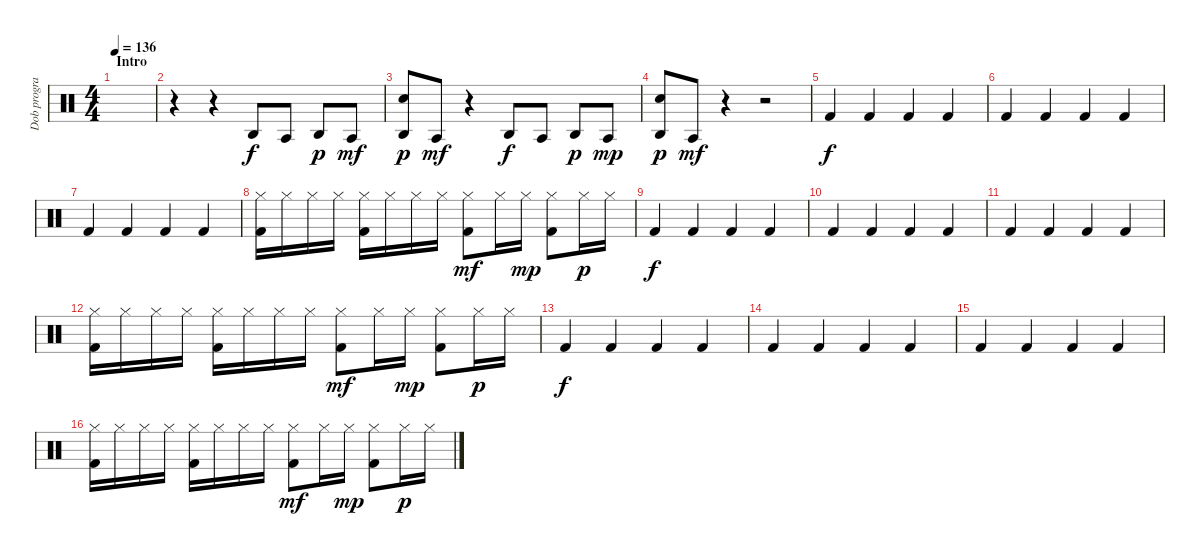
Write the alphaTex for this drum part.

\track ("Dob program" "Dob progra") {instrument percussion}
\staff {score}
\articulation defaults
\ts (4 4)
\section ("" "Intro")
\tempo 136
\clef neutral
\ks c
|
r.4 r.4 "Agogo high (hit)".8 "Agogo tow (hit)".8 "Agogo high (hit)".8{dy p} "Agogo tow (hit)".8{dy mf} |
("Agogo high (hit)" "Electric Snare (hit)").8{dy p} "Agogo tow (hit)".8{dy mf} r.4 "Agogo high (hit)".8{dy f} "Agogo tow (hit)".8 "Agogo high (hit)".8{dy p} "Agogo tow (hit)".8{dy mp} |
("Agogo high (hit)" "Electric Snare (hit)").8{dy p} "Agogo tow (hit)".8{dy mf} r.4 r.2 |
"Kick (hit) 2".4{dy f} "Kick (hit) 2".4 "Kick (hit) 2".4 "Kick (hit) 2".4 |
"Kick (hit) 2".4 "Kick (hit) 2".4 "Kick (hit) 2".4 "Kick (hit) 2".4 |
"Kick (hit) 2".4 "Kick (hit) 2".4 "Kick (hit) 2".4 "Kick (hit) 2".4 |
("Hi-Hat (closed)" "Kick (hit) 2").16 "Hi-Hat (closed)".16 "Hi-Hat (closed)".16 "Hi-Hat (closed)".16 ("Hi-Hat (closed)" "Kick (hit) 2").16 "Hi-Hat (closed)".16 "Hi-Hat (closed)".16 "Hi-Hat (closed)".16 ("Hi-Hat (closed)" "Kick (hit) 2").8{dy mf} "Hi-Hat (closed)".16 "Hi-Hat (closed)".16{dy mp} ("Hi-Hat (closed)" "Kick (hit) 2").8 "Hi-Hat (closed)".16{dy p} "Hi-Hat (closed)".16 |
"Kick (hit) 2".4{dy f} "Kick (hit) 2".4 "Kick (hit) 2".4 "Kick (hit) 2".4 |
"Kick (hit) 2".4 "Kick (hit) 2".4 "Kick (hit) 2".4 "Kick (hit) 2".4 |
"Kick (hit) 2".4 "Kick (hit) 2".4 "Kick (hit) 2".4 "Kick (hit) 2".4 |
("Hi-Hat (closed)" "Kick (hit) 2").16 "Hi-Hat (closed)".16 "Hi-Hat (closed)".16 "Hi-Hat (closed)".16 ("Hi-Hat (closed)" "Kick (hit) 2").16 "Hi-Hat (closed)".16 "Hi-Hat (closed)".16 "Hi-Hat (closed)".16 ("Hi-Hat (closed)" "Kick (hit) 2").8{dy mf} "Hi-Hat (closed)".16 "Hi-Hat (closed)".16{dy mp} ("Hi-Hat (closed)" "Kick (hit) 2").8 "Hi-Hat (closed)".16{dy p} "Hi-Hat (closed)".16 |
"Kick (hit) 2".4{dy f} "Kick (hit) 2".4 "Kick (hit) 2".4 "Kick (hit) 2".4 |
"Kick (hit) 2".4 "Kick (hit) 2".4 "Kick (hit) 2".4 "Kick (hit) 2".4 |
"Kick (hit) 2".4 "Kick (hit) 2".4 "Kick (hit) 2".4 "Kick (hit) 2".4 |
("Hi-Hat (closed)" "Kick (hit) 2").16 "Hi-Hat (closed)".16 "Hi-Hat (closed)".16 "Hi-Hat (closed)".16 ("Hi-Hat (closed)" "Kick (hit) 2").16 "Hi-Hat (closed)".16 "Hi-Hat (closed)".16 "Hi-Hat (closed)".16 ("Hi-Hat (closed)" "Kick (hit) 2").8{dy mf} "Hi-Hat (closed)".16 "Hi-Hat (closed)".16{dy mp} ("Hi-Hat (closed)" "Kick (hit) 2").8 "Hi-Hat (closed)".16{dy p} "Hi-Hat (closed)".16
